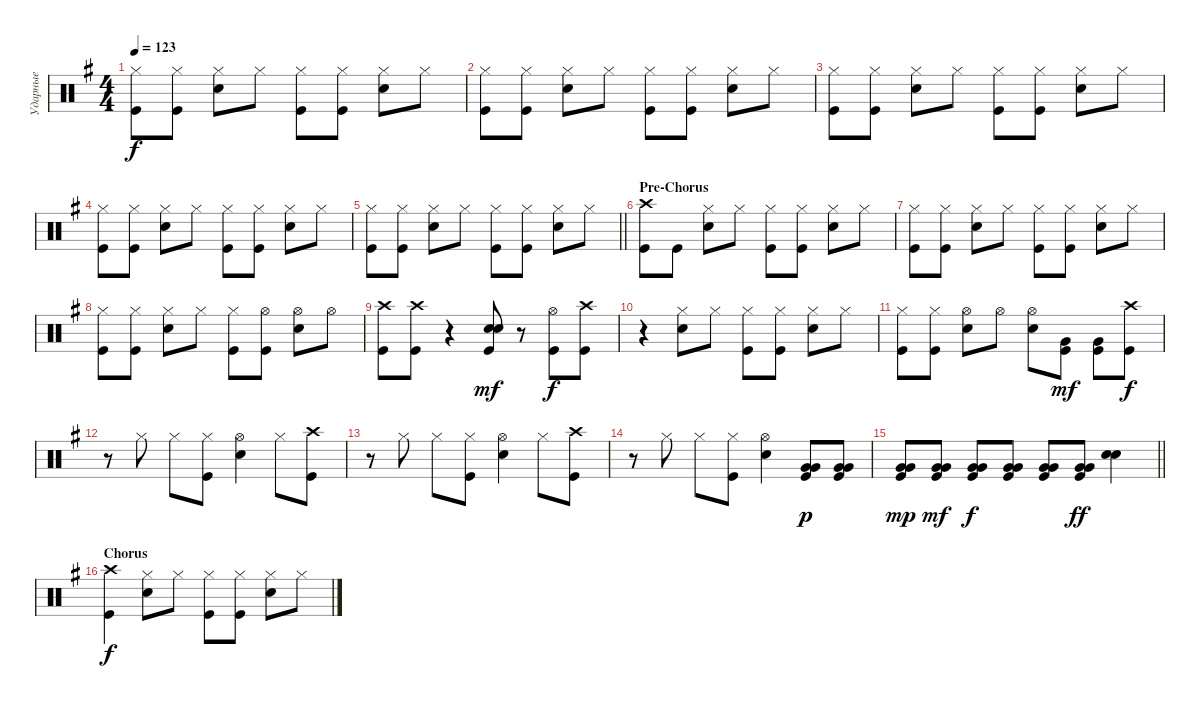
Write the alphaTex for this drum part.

\track ("Ударные" "Ударные") {instrument percussion}
\staff {score}
\articulation defaults
\ts (4 4)
\tempo 123
\clef neutral
\ks eminor
("Hi-Hat (closed)" "Kick (hit)").8{dy f} ("Hi-Hat (closed)" "Kick (hit)").8 ("Snare (hit) 2" "Hi-Hat (closed)").8 "Hi-Hat (closed)".8 ("Hi-Hat (closed)" "Kick (hit)").8 ("Hi-Hat (closed)" "Kick (hit)").8 ("Hi-Hat (closed)" "Snare (hit) 2").8 "Hi-Hat (closed)".8 |
("Hi-Hat (closed)" "Kick (hit)").8 ("Hi-Hat (closed)" "Kick (hit)").8 ("Snare (hit) 2" "Hi-Hat (closed)").8 "Hi-Hat (closed)".8 ("Hi-Hat (closed)" "Kick (hit)").8 ("Hi-Hat (closed)" "Kick (hit)").8 ("Hi-Hat (closed)" "Snare (hit) 2").8 "Hi-Hat (closed)".8 |
("Hi-Hat (closed)" "Kick (hit)").8 ("Hi-Hat (closed)" "Kick (hit)").8 ("Snare (hit) 2" "Hi-Hat (closed)").8 "Hi-Hat (closed)".8 ("Hi-Hat (closed)" "Kick (hit)").8 ("Hi-Hat (closed)" "Kick (hit)").8 ("Hi-Hat (closed)" "Snare (hit) 2").8 "Hi-Hat (closed)".8 |
("Hi-Hat (closed)" "Kick (hit)").8 ("Hi-Hat (closed)" "Kick (hit)").8 ("Snare (hit) 2" "Hi-Hat (closed)").8 "Hi-Hat (closed)".8 ("Hi-Hat (closed)" "Kick (hit)").8 ("Hi-Hat (closed)" "Kick (hit)").8 ("Hi-Hat (closed)" "Snare (hit) 2").8 "Hi-Hat (closed)".8 |
\barLineRight lightlight
("Hi-Hat (closed)" "Kick (hit)").8 ("Hi-Hat (closed)" "Kick (hit)").8 ("Snare (hit) 2" "Hi-Hat (closed)").8 "Hi-Hat (closed)".8 ("Hi-Hat (closed)" "Kick (hit)").8 ("Hi-Hat (closed)" "Kick (hit)").8 ("Hi-Hat (closed)" "Snare (hit) 2").8 "Hi-Hat (closed)".8 |
\section ("" "Pre-Chorus")
("Crash high (hit)" "Kick (hit)").8 "Kick (hit)".8 ("Snare (hit) 2" "Hi-Hat (closed)").8 "Hi-Hat (closed)".8 ("Hi-Hat (closed)" "Kick (hit)").8 ("Hi-Hat (closed)" "Kick (hit)").8 ("Hi-Hat (closed)" "Snare (hit) 2").8 "Hi-Hat (closed)".8 |
("Hi-Hat (closed)" "Kick (hit)").8 ("Hi-Hat (closed)" "Kick (hit)").8 ("Snare (hit) 2" "Hi-Hat (closed)").8 "Hi-Hat (closed)".8 ("Hi-Hat (closed)" "Kick (hit)").8 ("Hi-Hat (closed)" "Kick (hit)").8 ("Hi-Hat (closed)" "Snare (hit) 2").8 "Hi-Hat (closed)".8 |
("Hi-Hat (closed)" "Kick (hit)").8 ("Hi-Hat (closed)" "Kick (hit)").8 ("Snare (hit) 2" "Hi-Hat (closed)").8 "Hi-Hat (closed)".8 ("Hi-Hat (closed)" "Kick (hit)").8 ("Hi-Hat (open)" "Kick (hit)").8 ("Hi-Hat (open)" "Snare (hit) 2").8 "Hi-Hat (open)".8 |
("Crash high (hit)" "Kick (hit)").8 ("Kick (hit)" "Crash high (hit)").8 r.4 ("Snare (hit) 2" "Kick (hit)" "Snare (hit) 2").8{bd 120 dy mf} r.8 ("Kick (hit)" "Hi-Hat (open)").8{dy f} ("Kick (hit)" "Crash high (hit)").8 |
r.4 ("Snare (hit) 2" "Hi-Hat (closed)").8 "Hi-Hat (closed)".8 ("Hi-Hat (closed)" "Kick (hit)").8 ("Hi-Hat (closed)" "Kick (hit)").8 ("Hi-Hat (closed)" "Snare (hit) 2").8 "Hi-Hat (closed)".8 |
("Hi-Hat (closed)" "Kick (hit)").8 ("Hi-Hat (closed)" "Kick (hit)").8 ("Snare (hit) 2" "Hi-Hat (open)").8 "Hi-Hat (open)".8 ("Hi-Hat (open)" "Snare (hit) 2").8 ("Kick (hit)" "Very Low Tom (hit)").8{dy mf} ("Kick (hit)" "Very Low Tom (hit)").8 ("Kick (hit)" "Crash high (hit)").8{dy f} |
r.8 "Hi-Hat (closed)".8 "Hi-Hat (closed)".8 ("Hi-Hat (closed)" "Kick (hit)").8 ("Hi-Hat (open)" "Snare (hit) 2").4 "Hi-Hat (closed)".8 ("Kick (hit)" "Crash high (hit)").8 |
r.8 "Hi-Hat (closed)".8 "Hi-Hat (closed)".8 ("Hi-Hat (closed)" "Kick (hit)").8 ("Hi-Hat (open)" "Snare (hit) 2").4 "Hi-Hat (closed)".8 ("Kick (hit)" "Crash high (hit)").8 |
r.8 "Hi-Hat (closed)".8 "Hi-Hat (closed)".8 ("Hi-Hat (closed)" "Kick (hit)").8 ("Hi-Hat (open)" "Snare (hit) 2").4 ("Kick (hit)" "Very Low Tom (hit)" "Very Low Tom (hit)").8{bd 60 dy p} ("Kick (hit)" "Very Low Tom (hit)" "Very Low Tom (hit)").8{bd 60} |
\barLineRight lightlight
("Kick (hit)" "Very Low Tom (hit)" "Very Low Tom (hit)").8{bd 60 dy mp} ("Kick (hit)" "Very Low Tom (hit)" "Very Low Tom (hit)").8{bd 60 dy mf} ("Kick (hit)" "Very Low Tom (hit)" "Very Low Tom (hit)").8{bd 60 dy f} ("Very Low Tom (hit)" "Kick (hit)" "Very Low Tom (hit)").8{bd 60} ("Kick (hit)" "Very Low Tom (hit)" "Very Low Tom (hit)").8{bd 60} ("Kick (hit)" "Very Low Tom (hit)" "Very Low Tom (hit)").8{bd 60 dy ff} ("Snare (hit) 2" "Snare (hit) 2").4{bd 240} |
\section ("" "Chorus")
("Crash high (hit)" "Kick (hit)").4{dy f} ("Snare (hit) 2" "Hi-Hat (closed)").8 "Hi-Hat (closed)".8 ("Hi-Hat (closed)" "Kick (hit)").8 ("Hi-Hat (closed)" "Kick (hit)").8 ("Hi-Hat (closed)" "Snare (hit) 2").8 "Hi-Hat (closed)".8
